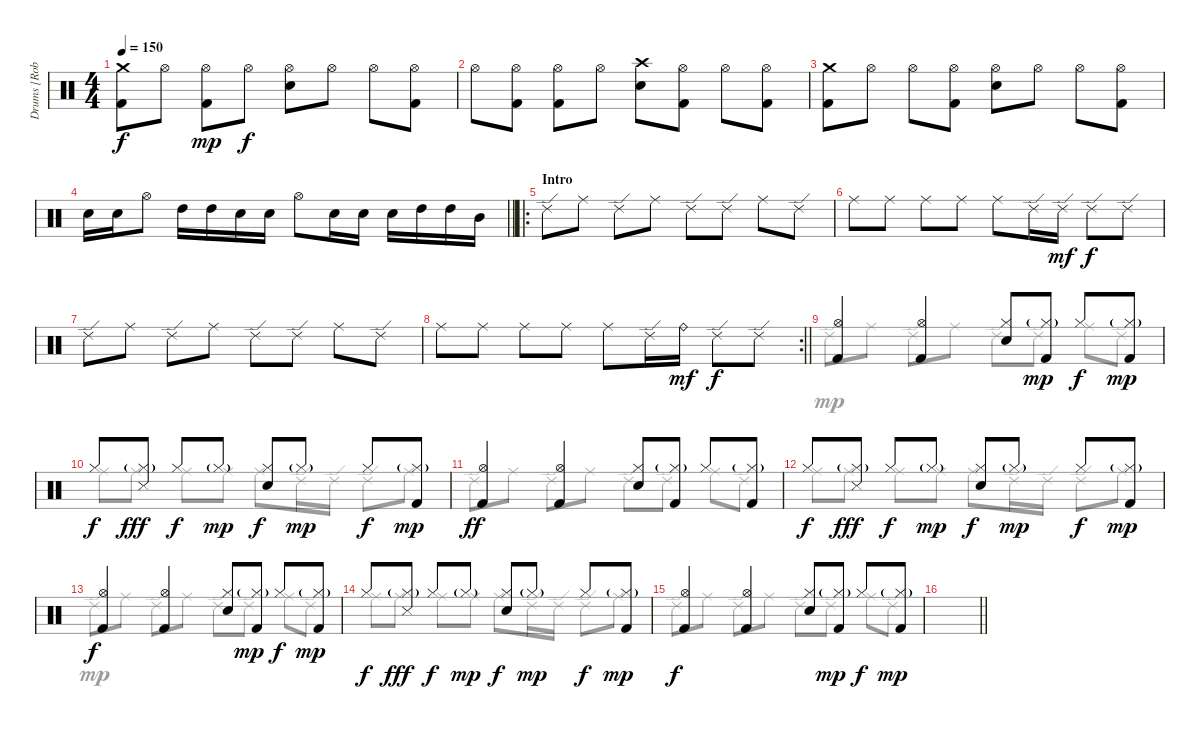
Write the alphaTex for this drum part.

\track ("Drums [Rob Bourdon]" "Drums [Rob") {instrument percussion}
\staff {score}
\articulation defaults
\voice
\ts (4 4)
\tempo 150
\clef neutral
\ks c
("Crash medium (hit)" "Kick (hit) 2").8{dy f} "Hi-Hat (open)".8 ("Hi-Hat (open)" "Kick (hit) 2").8{dy mp} "Hi-Hat (open)".8{dy f} ("Hi-Hat (open)" "Snare (hit) 2").8 "Hi-Hat (open)".8 "Hi-Hat (open)".8 ("Hi-Hat (open)" "Kick (hit) 2").8 |
"Hi-Hat (open)".8 ("Hi-Hat (open)" "Kick (hit) 2").8 ("Hi-Hat (open)" "Kick (hit) 2").8 "Hi-Hat (open)".8 ("Crash high (hit)" "Snare (hit) 2").8 ("Hi-Hat (open)" "Kick (hit) 2").8 "Hi-Hat (open)".8 ("Hi-Hat (open)" "Kick (hit) 2").8 |
("Crash medium (hit)" "Kick (hit) 2").8 "Hi-Hat (open)".8 "Hi-Hat (open)".8 ("Hi-Hat (open)" "Kick (hit) 2").8 ("Hi-Hat (open)" "Snare (hit) 2").8 "Hi-Hat (open)".8 "Hi-Hat (open)".8 ("Hi-Hat (open)" "Kick (hit) 2").8 |
\barLineRight lightlight "Snare (hit) 2".16 "Snare (hit) 2".16 "Hi-Hat (open)".8 "High Tom (hit)".16 "High Tom (hit)".16 "Snare (hit) 2".16 "Snare (hit) 2".16 "Hi-Hat (open)".8 "Snare (hit) 2".16 "Snare (hit) 2".16 "Snare (hit) 2".16 "High Tom (hit)".16 "High Tom (hit)".16 "Mid Tom (hit)".16
|
\ro
\section ("" "Intro")
"Ride (edge) 2".8 "Ride (middle)".8 "Ride (edge) 2".8 "Ride (middle)".8 "Ride (edge) 2".8 "Ride (edge) 2".8 "Ride (middle)".8 "Ride (edge) 2".8 |
"Ride (middle)".8 "Ride (middle)".8 "Ride (middle)".8 "Ride (middle)".8 "Ride (middle)".8 "Ride (edge) 2".16 "Ride (edge) 2".16{dy mf} "Ride (edge) 2".8{dy f} "Ride (edge) 2".8 |
"Ride (edge) 2".8 "Ride (middle)".8 "Ride (edge) 2".8 "Ride (middle)".8 "Ride (edge) 2".8 "Ride (edge) 2".8 "Ride (middle)".8 "Ride (edge) 2".8 |
\rc 2
\barLineRight lightlight "Ride (middle)".8 "Ride (middle)".8 "Ride (middle)".8 "Ride (middle)".8 "Ride (middle)".8 "Ride (edge) 2".16 "Ride (bell)".16{dy mf} "Ride (edge) 2".8{dy f} "Ride (edge) 2".8
|
("Hi-Hat (open)" "Kick (hit) 2").4 ("Hi-Hat (open)" "Kick (hit) 2").4 ("Hi-Hat (closed)" "Snare (hit) 2").8 ("Hi-Hat (closed)"{g} "Kick (hit) 2").8{dy mp} "Hi-Hat (closed)".8{dy f} ("Hi-Hat (closed)"{g} "Kick (hit) 2").8{dy mp} |
"Hi-Hat (closed)".8{dy f} ("Hi-Hat (closed)"{g} "Snare (side stick) 3").8{dy fff} "Hi-Hat (closed)".8{dy f} "Hi-Hat (closed)"{g}.8{dy mp} ("Hi-Hat (closed)" "Snare (hit) 2").8{dy f} "Hi-Hat (closed)"{g}.8{dy mp} "Hi-Hat (closed)".8{dy f} ("Hi-Hat (closed)"{g} "Kick (hit) 2").8{dy mp} |
("Hi-Hat (open)" "Kick (hit) 2").4{dy ff} ("Hi-Hat (open)" "Kick (hit) 2").4 ("Hi-Hat (closed)" "Snare (hit) 2").8 ("Hi-Hat (closed)"{g} "Kick (hit) 2").8 "Hi-Hat (closed)".8 ("Hi-Hat (closed)"{g} "Kick (hit) 2").8 |
"Hi-Hat (closed)".8{dy f} ("Hi-Hat (closed)"{g} "Snare (side stick) 3").8{dy fff} "Hi-Hat (closed)".8{dy f} "Hi-Hat (closed)"{g}.8{dy mp} ("Hi-Hat (closed)" "Snare (hit) 2").8{dy f} "Hi-Hat (closed)"{g}.8{dy mp} "Hi-Hat (closed)".8{dy f} ("Hi-Hat (closed)"{g} "Kick (hit) 2").8{dy mp} |
("Hi-Hat (open)" "Kick (hit) 2").4{dy f} ("Hi-Hat (open)" "Kick (hit) 2").4 ("Hi-Hat (closed)" "Snare (hit) 2").8 ("Hi-Hat (closed)"{g} "Kick (hit) 2").8{dy mp} "Hi-Hat (closed)".8{dy f} ("Hi-Hat (closed)"{g} "Kick (hit) 2").8{dy mp} |
"Hi-Hat (closed)".8{dy f} ("Hi-Hat (closed)"{g} "Snare (side stick) 3").8{dy fff} "Hi-Hat (closed)".8{dy f} "Hi-Hat (closed)"{g}.8{dy mp} ("Hi-Hat (closed)" "Snare (hit) 2").8{dy f} "Hi-Hat (closed)"{g}.8{dy mp} "Hi-Hat (closed)".8{dy f} ("Hi-Hat (closed)"{g} "Kick (hit) 2").8{dy mp} |
("Hi-Hat (open)" "Kick (hit) 2").4{dy f} ("Hi-Hat (open)" "Kick (hit) 2").4 ("Hi-Hat (closed)" "Snare (hit) 2").8 ("Hi-Hat (closed)"{g} "Kick (hit) 2").8{dy mp} "Hi-Hat (closed)".8{dy f} ("Hi-Hat (closed)"{g} "Kick (hit) 2").8{dy mp} |
\barLineRight lightlight
\voice
\clef neutral
\ottava regular
\simile none
\ks c
|
|
|
\barLineRight lightlight
|
|
|
|
\barLineRight lightlight
|
"Ride (edge) 2".8{dy mp} "Ride (middle)".8 "Ride (edge) 2".8 "Ride (middle)".8 "Ride (edge) 2".8 "Ride (edge) 2".8 "Ride (middle)".8 "Ride (edge) 2".8 |
"Ride (middle)".8 "Ride (middle)".8 "Ride (middle)".8 "Ride (middle)".8 "Ride (middle)".8 "Ride (edge) 2".16 "Ride (edge) 2".16 "Ride (edge) 2".8 "Ride (middle)".8 |
"Ride (edge) 2".8 "Ride (middle)".8 "Ride (edge) 2".8 "Ride (middle)".8 "Ride (edge) 2".8 "Ride (edge) 2".8 "Ride (middle)".8 "Ride (edge) 2".8 |
"Ride (middle)".8{dy f} "Ride (middle)".8 "Ride (middle)".8 "Ride (middle)".8 "Ride (middle)".8 "Ride (edge) 2".16 "Ride (edge) 2".16 "Ride (edge) 2".8 "Ride (middle)".8 |
"Ride (edge) 2".8{dy mp} "Ride (middle)".8 "Ride (edge) 2".8 "Ride (middle)".8 "Ride (edge) 2".8 "Ride (edge) 2".8 "Ride (middle)".8 "Ride (edge) 2".8 |
"Ride (middle)".8 "Ride (middle)".8 "Ride (middle)".8 "Ride (middle)".8 "Ride (middle)".8 "Ride (edge) 2".16 "Ride (edge) 2".16 "Ride (edge) 2".8 "Ride (middle)".8 |
"Ride (edge) 2".8 "Ride (middle)".8 "Ride (edge) 2".8 "Ride (middle)".8 "Ride (edge) 2".8 "Ride (edge) 2".8 "Ride (middle)".8 "Ride (edge) 2".8 |
\barLineRight lightlight
